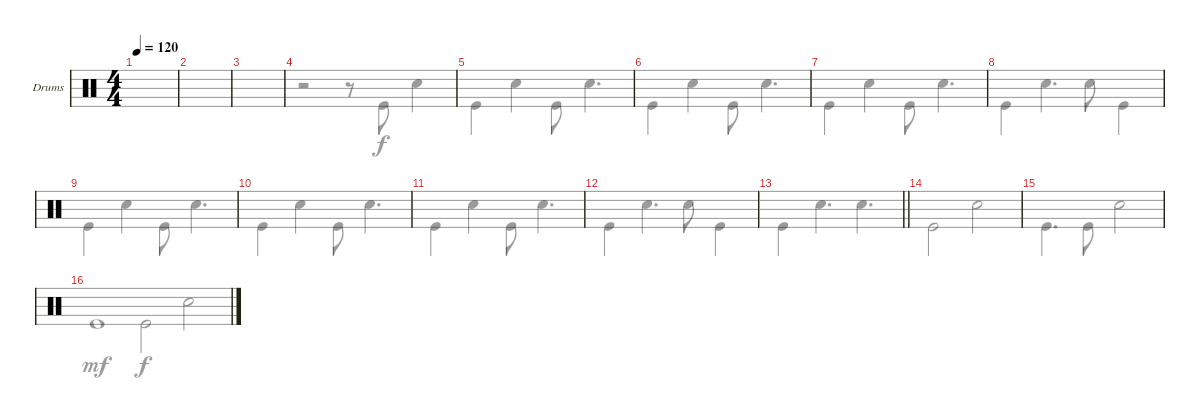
\defaultSystemsLayout 4
\bracketExtendMode groupsimilarinstruments
\firstSystemTrackNameOrientation horizontal
\otherSystemsTrackNameOrientation horizontal
\track ("Drums" "Drums") {instrument percussion}
\staff {score}
\articulation defaults
\voice
\ts (4 4)
\scale
0.544286
\tempo 120
\accidentals auto
\clef neutral
\ottava regular
\simile none
\ks aminor
|
\scale
0.45584 |
\scale
0.497869 |
\scale
0.502655 |
\scale
0.507246 |
\scale
0.492754 |
\scale
0.51122 |
\scale
0.48914 |
\scale
0.522964 |
\scale
0.477088 |
\scale
0.497143 |
\scale
0.502849 |
\scale
0.517143
\barLineRight lightlight
|
\scale
0.482906 |
\scale
0.5 |
\scale
0.5
\voice
\clef neutral
\ottava regular
\simile none
\ks aminor "Kick (hit)".1{dy mf}
|
|
|
r.2 r.8 "Kick (hit)".8{dy f} "Snare (hit) 2".4 |
"Kick (hit)".4 "Snare (hit) 2".4 "Kick (hit)".8 "Snare (hit) 2".4{d} |
"Kick (hit)".4 "Snare (hit) 2".4 "Kick (hit)".8 "Snare (hit) 2".4{d} |
"Kick (hit)".4 "Snare (hit) 2".4 "Kick (hit)".8 "Snare (hit) 2".4{d} |
"Kick (hit)".4 "Snare (hit) 2".4{d} "Snare (hit) 2".8 "Kick (hit)".4 |
"Kick (hit)".4 "Snare (hit) 2".4 "Kick (hit)".8 "Snare (hit) 2".4{d} |
"Kick (hit)".4 "Snare (hit) 2".4 "Kick (hit)".8 "Snare (hit) 2".4{d} |
"Kick (hit)".4 "Snare (hit) 2".4 "Kick (hit)".8 "Snare (hit) 2".4{d} |
"Kick (hit)".4 "Snare (hit) 2".4{d} "Snare (hit) 2".8 "Kick (hit)".4 |
\barLineRight lightlight "Kick (hit)".4 "Snare (hit) 2".4{d} "Snare (hit) 2".4{d}
|
"Kick (hit)".2 "Snare (hit) 2".2 |
"Kick (hit)".4{d} "Kick (hit)".8 "Snare (hit) 2".2 |
"Kick (hit)".2 "Snare (hit) 2".2
